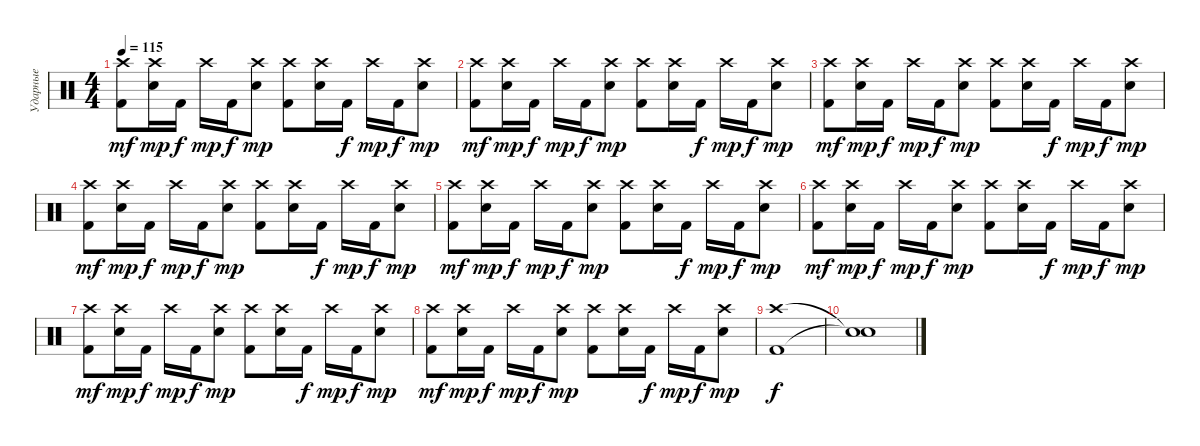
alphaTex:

\track ("Ударные" "Ударные") {instrument percussion}
\staff {score}
\articulation defaults
\ts (4 4)
\tempo 115
\clef neutral
\ks c
("Crash high (hit)" "Kick (hit) 2").8{dy mf} ("Crash high (hit)" "Electric Snare (hit)").16{dy mp} "Kick (hit) 2".16{dy f} "Crash high (hit)".16{dy mp} "Kick (hit) 2".16{dy f} ("Crash high (hit)" "Electric Snare (hit)").8{dy mp} ("Crash high (hit)" "Kick (hit) 2").8 ("Crash high (hit)" "Electric Snare (hit)").16 "Kick (hit) 2".16{dy f} "Crash high (hit)".16{dy mp} "Kick (hit) 2".16{dy f} ("Crash high (hit)" "Electric Snare (hit)").8{dy mp} |
("Crash high (hit)" "Kick (hit) 2").8{dy mf} ("Crash high (hit)" "Electric Snare (hit)").16{dy mp} "Kick (hit) 2".16{dy f} "Crash high (hit)".16{dy mp} "Kick (hit) 2".16{dy f} ("Crash high (hit)" "Electric Snare (hit)").8{dy mp} ("Crash high (hit)" "Kick (hit) 2").8 ("Crash high (hit)" "Electric Snare (hit)").16 "Kick (hit) 2".16{dy f} "Crash high (hit)".16{dy mp} "Kick (hit) 2".16{dy f} ("Crash high (hit)" "Electric Snare (hit)").8{dy mp} |
("Crash high (hit)" "Kick (hit) 2").8{dy mf} ("Crash high (hit)" "Electric Snare (hit)").16{dy mp} "Kick (hit) 2".16{dy f} "Crash high (hit)".16{dy mp} "Kick (hit) 2".16{dy f} ("Crash high (hit)" "Electric Snare (hit)").8{dy mp} ("Crash high (hit)" "Kick (hit) 2").8 ("Crash high (hit)" "Electric Snare (hit)").16 "Kick (hit) 2".16{dy f} "Crash high (hit)".16{dy mp} "Kick (hit) 2".16{dy f} ("Crash high (hit)" "Electric Snare (hit)").8{dy mp} |
("Crash high (hit)" "Kick (hit) 2").8{dy mf} ("Crash high (hit)" "Electric Snare (hit)").16{dy mp} "Kick (hit) 2".16{dy f} "Crash high (hit)".16{dy mp} "Kick (hit) 2".16{dy f} ("Crash high (hit)" "Electric Snare (hit)").8{dy mp} ("Crash high (hit)" "Kick (hit) 2").8 ("Crash high (hit)" "Electric Snare (hit)").16 "Kick (hit) 2".16{dy f} "Crash high (hit)".16{dy mp} "Kick (hit) 2".16{dy f} ("Crash high (hit)" "Electric Snare (hit)").8{dy mp} |
("Crash high (hit)" "Kick (hit) 2").8{dy mf} ("Crash high (hit)" "Electric Snare (hit)").16{dy mp} "Kick (hit) 2".16{dy f} "Crash high (hit)".16{dy mp} "Kick (hit) 2".16{dy f} ("Crash high (hit)" "Electric Snare (hit)").8{dy mp} ("Crash high (hit)" "Kick (hit) 2").8 ("Crash high (hit)" "Electric Snare (hit)").16 "Kick (hit) 2".16{dy f} "Crash high (hit)".16{dy mp} "Kick (hit) 2".16{dy f} ("Crash high (hit)" "Electric Snare (hit)").8{dy mp} |
("Crash high (hit)" "Kick (hit) 2").8{dy mf} ("Crash high (hit)" "Electric Snare (hit)").16{dy mp} "Kick (hit) 2".16{dy f} "Crash high (hit)".16{dy mp} "Kick (hit) 2".16{dy f} ("Crash high (hit)" "Electric Snare (hit)").8{dy mp} ("Crash high (hit)" "Kick (hit) 2").8 ("Crash high (hit)" "Electric Snare (hit)").16 "Kick (hit) 2".16{dy f} "Crash high (hit)".16{dy mp} "Kick (hit) 2".16{dy f} ("Crash high (hit)" "Electric Snare (hit)").8{dy mp} |
("Crash high (hit)" "Kick (hit) 2").8{dy mf} ("Crash high (hit)" "Electric Snare (hit)").16{dy mp} "Kick (hit) 2".16{dy f} "Crash high (hit)".16{dy mp} "Kick (hit) 2".16{dy f} ("Crash high (hit)" "Electric Snare (hit)").8{dy mp} ("Crash high (hit)" "Kick (hit) 2").8 ("Crash high (hit)" "Electric Snare (hit)").16 "Kick (hit) 2".16{dy f} "Crash high (hit)".16{dy mp} "Kick (hit) 2".16{dy f} ("Crash high (hit)" "Electric Snare (hit)").8{dy mp} |
("Crash high (hit)" "Kick (hit) 2").8{dy mf} ("Crash high (hit)" "Electric Snare (hit)").16{dy mp} "Kick (hit) 2".16{dy f} "Crash high (hit)".16{dy mp} "Kick (hit) 2".16{dy f} ("Crash high (hit)" "Electric Snare (hit)").8{dy mp} ("Crash high (hit)" "Kick (hit) 2").8 ("Crash high (hit)" "Electric Snare (hit)").16 "Kick (hit) 2".16{dy f} "Crash high (hit)".16{dy mp} "Kick (hit) 2".16{dy f} ("Crash high (hit)" "Electric Snare (hit)").8{dy mp} |
("Crash high (hit)" "Kick (hit) 2").1{dy f} |
("Snare (hit)"{t} "Snare (hit)"{t}).1
